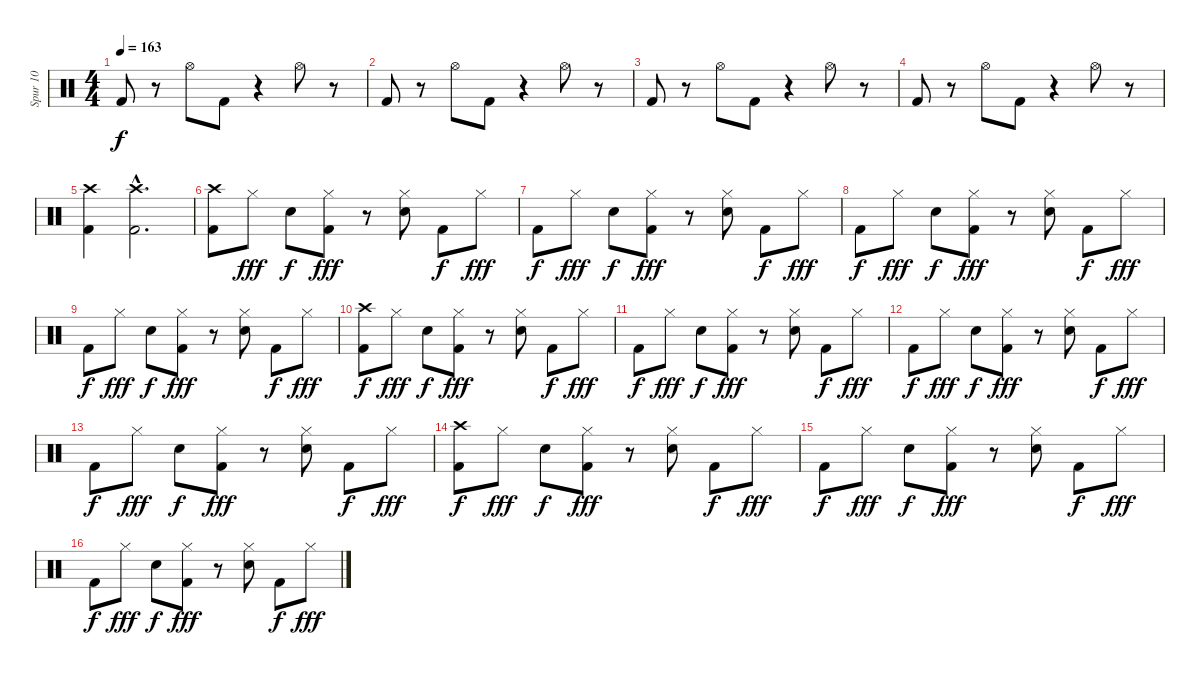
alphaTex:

\track ("Spur 10" "Spur 10") {instrument percussion}
\staff {score}
\articulation defaults
\ts (4 4)
\tempo 163
\clef neutral
\ks c "Kick (hit) 2".8{dy f}
r.8 "Hi-Hat (open)".8 "Kick (hit) 2".8 r.4 "Hi-Hat (open)".8 r.8 |
"Kick (hit) 2".8 r.8 "Hi-Hat (open)".8 "Kick (hit) 2".8 r.4 "Hi-Hat (open)".8 r.8 |
"Kick (hit) 2".8 r.8 "Hi-Hat (open)".8 "Kick (hit) 2".8 r.4 "Hi-Hat (open)".8 r.8 |
"Kick (hit) 2".8 r.8 "Hi-Hat (open)".8 "Kick (hit) 2".8 r.4 "Hi-Hat (open)".8 r.8 |
("Kick (hit) 2" "Crash high (hit)").4 ("Kick (hit) 2" "Crash high (hit)"{hac}).2{d} |
("Crash high (hit)" "Kick (hit) 2").8 "Hi-Hat (closed)".8{dy fff} "Snare (hit) 2".8{dy f} ("Hi-Hat (closed)" "Kick (hit) 2").8{dy fff} r.8 ("Hi-Hat (closed)" "Snare (hit) 2").8 "Kick (hit) 2".8{dy f} "Hi-Hat (closed)".8{dy fff} |
"Kick (hit) 2".8{dy f} "Hi-Hat (closed)".8{dy fff} "Snare (hit) 2".8{dy f} ("Hi-Hat (closed)" "Kick (hit) 2").8{dy fff} r.8 ("Hi-Hat (closed)" "Snare (hit) 2").8 "Kick (hit) 2".8{dy f} "Hi-Hat (closed)".8{dy fff} |
"Kick (hit) 2".8{dy f} "Hi-Hat (closed)".8{dy fff} "Snare (hit) 2".8{dy f} ("Hi-Hat (closed)" "Kick (hit) 2").8{dy fff} r.8 ("Hi-Hat (closed)" "Snare (hit) 2").8 "Kick (hit) 2".8{dy f} "Hi-Hat (closed)".8{dy fff} |
"Kick (hit) 2".8{dy f} "Hi-Hat (closed)".8{dy fff} "Snare (hit) 2".8{dy f} ("Hi-Hat (closed)" "Kick (hit) 2").8{dy fff} r.8 ("Hi-Hat (closed)" "Snare (hit) 2").8 "Kick (hit) 2".8{dy f} "Hi-Hat (closed)".8{dy fff} |
("Crash high (hit)" "Kick (hit) 2").8{dy f} "Hi-Hat (closed)".8{dy fff} "Snare (hit) 2".8{dy f} ("Hi-Hat (closed)" "Kick (hit) 2").8{dy fff} r.8 ("Hi-Hat (closed)" "Snare (hit) 2").8 "Kick (hit) 2".8{dy f} "Hi-Hat (closed)".8{dy fff} |
"Kick (hit) 2".8{dy f} "Hi-Hat (closed)".8{dy fff} "Snare (hit) 2".8{dy f} ("Hi-Hat (closed)" "Kick (hit) 2").8{dy fff} r.8 ("Hi-Hat (closed)" "Snare (hit) 2").8 "Kick (hit) 2".8{dy f} "Hi-Hat (closed)".8{dy fff} |
"Kick (hit) 2".8{dy f} "Hi-Hat (closed)".8{dy fff} "Snare (hit) 2".8{dy f} ("Hi-Hat (closed)" "Kick (hit) 2").8{dy fff} r.8 ("Hi-Hat (closed)" "Snare (hit) 2").8 "Kick (hit) 2".8{dy f} "Hi-Hat (closed)".8{dy fff} |
"Kick (hit) 2".8{dy f} "Hi-Hat (closed)".8{dy fff} "Snare (hit) 2".8{dy f} ("Hi-Hat (closed)" "Kick (hit) 2").8{dy fff} r.8 ("Hi-Hat (closed)" "Snare (hit) 2").8 "Kick (hit) 2".8{dy f} "Hi-Hat (closed)".8{dy fff} |
("Crash high (hit)" "Kick (hit) 2").8{dy f} "Hi-Hat (closed)".8{dy fff} "Snare (hit) 2".8{dy f} ("Hi-Hat (closed)" "Kick (hit) 2").8{dy fff} r.8 ("Hi-Hat (closed)" "Snare (hit) 2").8 "Kick (hit) 2".8{dy f} "Hi-Hat (closed)".8{dy fff} |
"Kick (hit) 2".8{dy f} "Hi-Hat (closed)".8{dy fff} "Snare (hit) 2".8{dy f} ("Hi-Hat (closed)" "Kick (hit) 2").8{dy fff} r.8 ("Hi-Hat (closed)" "Snare (hit) 2").8 "Kick (hit) 2".8{dy f} "Hi-Hat (closed)".8{dy fff} |
"Kick (hit) 2".8{dy f} "Hi-Hat (closed)".8{dy fff} "Snare (hit) 2".8{dy f} ("Hi-Hat (closed)" "Kick (hit) 2").8{dy fff} r.8 ("Hi-Hat (closed)" "Snare (hit) 2").8 "Kick (hit) 2".8{dy f} "Hi-Hat (closed)".8{dy fff}
